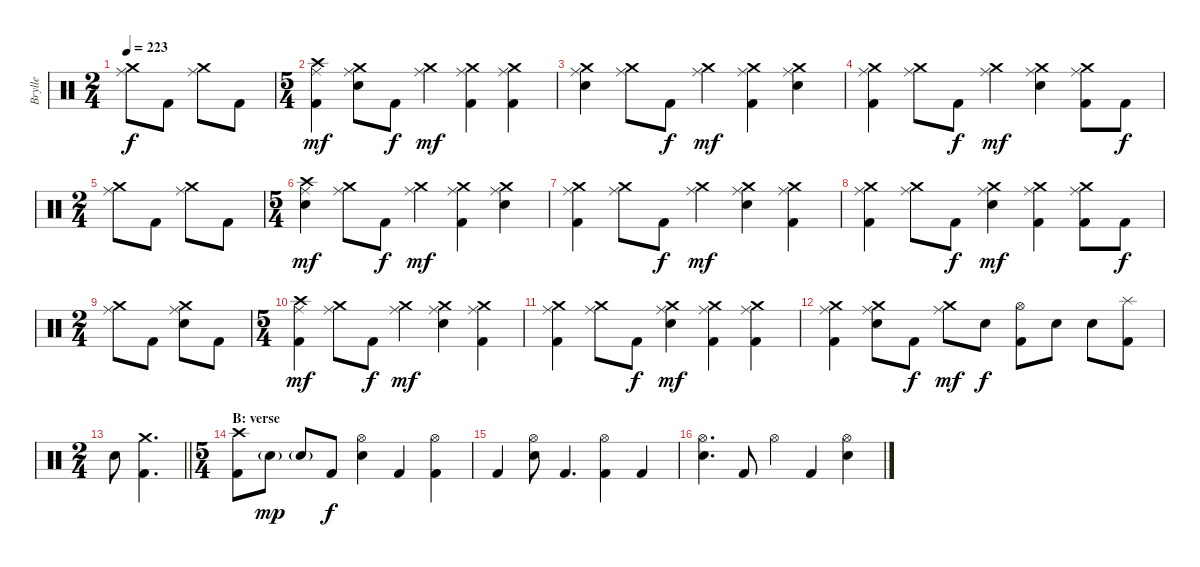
\track ("Brylle" "Brylle") {instrument percussion}
\staff {score}
\articulation defaults
\ts (2 4)
\tempo 223
\clef neutral
\ks c
("Crash medium (hit)" "Ride (middle)").8{dy f} "Kick (hit) 2".8 ("Crash medium (hit)" "Ride (middle)").8 "Kick (hit) 2".8 |
\ts (5 4)
("Crash high (hit)" "Ride (middle)" "Kick (hit) 2").4{dy mf} ("Crash medium (hit)" "Ride (middle)" "Electric Snare (hit)").8 "Kick (hit) 2".8{dy f} ("Crash medium (hit)" "Ride (middle)").4{dy mf} ("Crash medium (hit)" "Ride (middle)" "Kick (hit) 2").4 ("Crash medium (hit)" "Ride (middle)" "Kick (hit) 2").4 |
("Crash medium (hit)" "Ride (middle)" "Electric Snare (hit)").4 ("Crash medium (hit)" "Ride (middle)").8 "Kick (hit) 2".8{dy f} ("Crash medium (hit)" "Ride (middle)").4{dy mf} ("Crash medium (hit)" "Ride (middle)" "Kick (hit) 2").4 ("Crash medium (hit)" "Ride (middle)" "Electric Snare (hit)").4 |
("Crash medium (hit)" "Ride (middle)" "Kick (hit) 2").4 ("Crash medium (hit)" "Ride (middle)").8 "Kick (hit) 2".8{dy f} ("Crash medium (hit)" "Ride (middle)").4{dy mf} ("Crash medium (hit)" "Ride (middle)" "Electric Snare (hit)").4 ("Crash medium (hit)" "Ride (middle)" "Kick (hit) 2").8 "Kick (hit) 2".8{dy f} |
\ts (2 4)
("Crash medium (hit)" "Ride (middle)").8 "Kick (hit) 2".8 ("Crash medium (hit)" "Ride (middle)").8 "Kick (hit) 2".8 |
\ts (5 4)
("Crash high (hit)" "Ride (middle)" "Electric Snare (hit)").4{dy mf} ("Crash medium (hit)" "Ride (middle)").8 "Kick (hit) 2".8{dy f} ("Crash medium (hit)" "Ride (middle)").4{dy mf} ("Crash medium (hit)" "Ride (middle)" "Kick (hit) 2").4 ("Crash medium (hit)" "Ride (middle)" "Electric Snare (hit)").4 |
("Crash medium (hit)" "Ride (middle)" "Kick (hit) 2").4 ("Crash medium (hit)" "Ride (middle)").8 "Kick (hit) 2".8{dy f} ("Crash medium (hit)" "Ride (middle)").4{dy mf} ("Crash medium (hit)" "Ride (middle)" "Electric Snare (hit)").4 ("Crash medium (hit)" "Ride (middle)" "Kick (hit) 2").4 |
("Crash medium (hit)" "Ride (middle)" "Kick (hit) 2").4 ("Crash medium (hit)" "Ride (middle)").8 "Kick (hit) 2".8{dy f} ("Crash medium (hit)" "Ride (middle)" "Electric Snare (hit)").4{dy mf} ("Crash medium (hit)" "Ride (middle)" "Kick (hit) 2").4 ("Crash medium (hit)" "Ride (middle)" "Kick (hit) 2").8 "Kick (hit) 2".8{dy f} |
\ts (2 4)
("Crash medium (hit)" "Ride (middle)").8 "Kick (hit) 2".8 ("Crash medium (hit)" "Ride (middle)" "Electric Snare (hit)").8 "Kick (hit) 2".8 |
\ts (5 4)
("Crash high (hit)" "Ride (middle)" "Kick (hit) 2").4{dy mf} ("Crash medium (hit)" "Ride (middle)").8 "Kick (hit) 2".8{dy f} ("Crash medium (hit)" "Ride (middle)").4{dy mf} ("Crash medium (hit)" "Ride (middle)" "Electric Snare (hit)").4 ("Crash medium (hit)" "Ride (middle)" "Kick (hit) 2").4 |
("Crash medium (hit)" "Ride (middle)" "Kick (hit) 2").4 ("Crash medium (hit)" "Ride (middle)").8 "Kick (hit) 2".8{dy f} ("Crash medium (hit)" "Ride (middle)" "Electric Snare (hit)").4{dy mf} ("Crash medium (hit)" "Ride (middle)" "Kick (hit) 2").4 ("Crash medium (hit)" "Ride (middle)" "Kick (hit) 2").4 |
("Crash medium (hit)" "Ride (middle)" "Kick (hit) 2").4 ("Crash medium (hit)" "Ride (middle)" "Electric Snare (hit)").8 "Kick (hit) 2".8{dy f} ("Crash medium (hit)" "Ride (middle)").8{dy mf} "Electric Snare (hit)".8{dy f} ("Hi-Hat (open)" "Kick (hit) 2").8 "Electric Snare (hit)".8 "Electric Snare (hit)".8 ("Splash (hit)" "Kick (hit) 2").8 |
\ts (2 4)
\barLineRight lightlight "Electric Snare (hit)".8
("Crash medium (hit)" "Kick (hit) 2").4{d} |
\ts (5 4)
\section ("" "B: verse")
("Crash high (hit)" "Kick (hit) 2").8 "Electric Snare (hit)"{g}.8{dy mp} "Electric Snare (hit)"{g}.8 "Kick (hit) 2".8{dy f} ("Hi-Hat (open)" "Electric Snare (hit)").4 "Kick (hit) 2".4 ("Hi-Hat (open)" "Kick (hit) 2").4 |
"Kick (hit) 2".4 ("Hi-Hat (open)" "Electric Snare (hit)").8 "Kick (hit) 2".4{d} ("Hi-Hat (open)" "Kick (hit) 2").4 "Kick (hit) 2".4 |
("Hi-Hat (open)" "Electric Snare (hit)").4{d} "Kick (hit) 2".8 "Hi-Hat (open)".4 "Kick (hit) 2".4 ("Hi-Hat (open)" "Electric Snare (hit)").4
